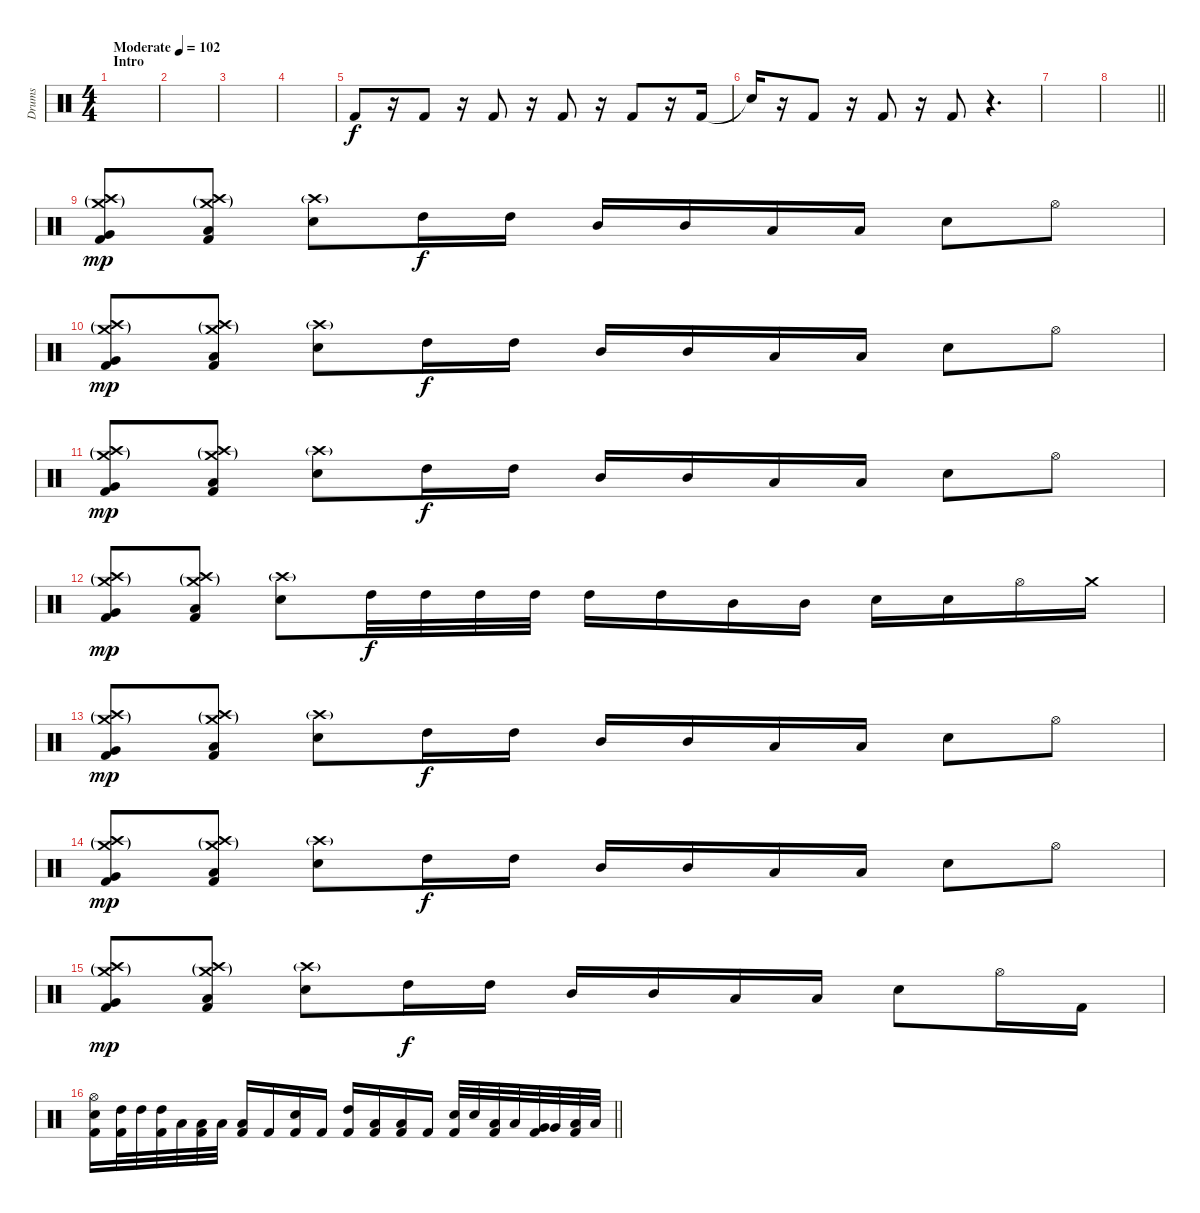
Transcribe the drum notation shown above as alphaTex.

\track ("Drums" "Drums") {instrument percussion}
\staff {score}
\articulation defaults
\ts (4 4)
\section ("" "Intro")
\tempo (102 "Moderate")
\clef neutral
\ks c
|
|
|
|
"Kick (hit) 2".8 r.16 "Kick (hit) 2".8{volume 14} r.16 "Kick (hit) 2".8{volume 12} r.16 "Kick (hit) 2".8{volume 10} r.16 "Kick (hit) 2".8{volume 8} r.16 "Kick (hit) 2".16{volume 6} |
"Snare (hit)"{t}.16 r.16 "Kick (hit) 2".8{volume 4} r.16 "Kick (hit) 2".8{volume 2} r.16 "Kick (hit) 2".8{volume 1} r.4{d} |
|
\barLineRight lightlight
|
("Crash medium (hit)"{g} "Crash high (hit)"{g} "Very Low Tom (hit)" "Kick (hit) 2").8{dy mp} ("Crash medium (hit)"{g} "Crash high (hit)"{g} "Low Floor Tom (hit)" "Kick (hit) 2").8 ("Crash high (hit)"{g} "Electric Snare (hit)").8 "High Tom (hit)".16{dy f} "High Tom (hit)".16 "Mid Tom (hit)".16 "Mid Tom (hit)".16 "Low Tom (hit)".16 "Low Tom (hit)".16 "Electric Snare (hit)".8 "Hi-Hat (open)".8 |
("Crash medium (hit)"{g} "Crash high (hit)"{g} "Very Low Tom (hit)" "Kick (hit) 2").8{dy mp} ("Crash medium (hit)"{g} "Crash high (hit)"{g} "Low Floor Tom (hit)" "Kick (hit) 2").8 ("Crash high (hit)"{g} "Electric Snare (hit)").8 "High Tom (hit)".16{dy f} "High Tom (hit)".16 "Mid Tom (hit)".16 "Mid Tom (hit)".16 "Low Tom (hit)".16 "Low Tom (hit)".16 "Electric Snare (hit)".8 "Hi-Hat (open)".8 |
("Crash medium (hit)"{g} "Crash high (hit)"{g} "Very Low Tom (hit)" "Kick (hit) 2").8{dy mp} ("Crash medium (hit)"{g} "Crash high (hit)"{g} "Low Floor Tom (hit)" "Kick (hit) 2").8 ("Crash high (hit)"{g} "Electric Snare (hit)").8 "High Tom (hit)".16{dy f} "High Tom (hit)".16 "Mid Tom (hit)".16 "Mid Tom (hit)".16 "Low Tom (hit)".16 "Low Tom (hit)".16 "Electric Snare (hit)".8 "Hi-Hat (open)".8 |
("Crash medium (hit)"{g} "Crash high (hit)"{g} "Very Low Tom (hit)" "Kick (hit) 2").8{dy mp} ("Crash medium (hit)"{g} "Crash high (hit)"{g} "Low Floor Tom (hit)" "Kick (hit) 2").8 ("Crash high (hit)"{g} "Electric Snare (hit)").8 "High Tom (hit)".32{dy f} "High Tom (hit)".32 "High Tom (hit)".32 "High Tom (hit)".32 "High Tom (hit)".16 "High Tom (hit)".16 "Mid Tom (hit)".16 "Mid Tom (hit)".16 "Electric Snare (hit)".16 "Electric Snare (hit)".16 "Hi-Hat (open)".16 "Crash medium (hit)".16 |
("Crash medium (hit)"{g} "Crash high (hit)"{g} "Very Low Tom (hit)" "Kick (hit) 2").8{dy mp} ("Crash medium (hit)"{g} "Crash high (hit)"{g} "Low Floor Tom (hit)" "Kick (hit) 2").8 ("Crash high (hit)"{g} "Electric Snare (hit)").8 "High Tom (hit)".16{dy f} "High Tom (hit)".16 "Mid Tom (hit)".16 "Mid Tom (hit)".16 "Low Tom (hit)".16 "Low Tom (hit)".16 "Electric Snare (hit)".8 "Hi-Hat (open)".8 |
("Crash medium (hit)"{g} "Crash high (hit)"{g} "Very Low Tom (hit)" "Kick (hit) 2").8{dy mp} ("Crash medium (hit)"{g} "Crash high (hit)"{g} "Low Floor Tom (hit)" "Kick (hit) 2").8 ("Crash high (hit)"{g} "Electric Snare (hit)").8 "High Tom (hit)".16{dy f} "High Tom (hit)".16 "Mid Tom (hit)".16 "Mid Tom (hit)".16 "Low Tom (hit)".16 "Low Tom (hit)".16 "Electric Snare (hit)".8 "Hi-Hat (open)".8 |
("Crash medium (hit)"{g} "Crash high (hit)"{g} "Very Low Tom (hit)" "Kick (hit) 2").8{dy mp} ("Crash medium (hit)"{g} "Crash high (hit)"{g} "Low Floor Tom (hit)" "Kick (hit) 2").8 ("Crash high (hit)"{g} "Electric Snare (hit)").8 "High Tom (hit)".16{dy f} "High Tom (hit)".16 "Mid Tom (hit)".16 "Mid Tom (hit)".16 "Low Tom (hit)".16 "Low Tom (hit)".16 "Electric Snare (hit)".8 "Hi-Hat (open)".16 "Kick (hit) 2".16 |
\barLineRight lightlight
("Hi-Hat (open)" "Electric Snare (hit)" "Kick (hit) 2").16 ("High Tom (hit)" "Kick (hit) 2").32 "High Tom (hit)".32 ("High Tom (hit)" "Kick (hit) 2").32 "Low Tom (hit)".32 ("Low Tom (hit)" "Kick (hit) 2").32 "Low Tom (hit)".32 ("Low Floor Tom (hit)" "Kick (hit) 2").16 "Kick (hit) 2".16 ("Electric Snare (hit)" "Kick (hit) 2").16 "Kick (hit) 2".16 ("High Tom (hit)" "Kick (hit) 2").16 ("Low Tom (hit)" "Kick (hit) 2").16 ("Low Floor Tom (hit)" "Kick (hit) 2").16 "Kick (hit) 2".16 ("Electric Snare (hit)" "Kick (hit) 2").32 "Electric Snare (hit)".32 ("Low Tom (hit)" "Kick (hit) 2").32 "Low Tom (hit)".32 ("Very Low Tom (hit)" "Kick (hit) 2").32 "Very Low Tom (hit)".32 ("Low Floor Tom (hit)" "Kick (hit) 2").32 "Low Floor Tom (hit)".32
